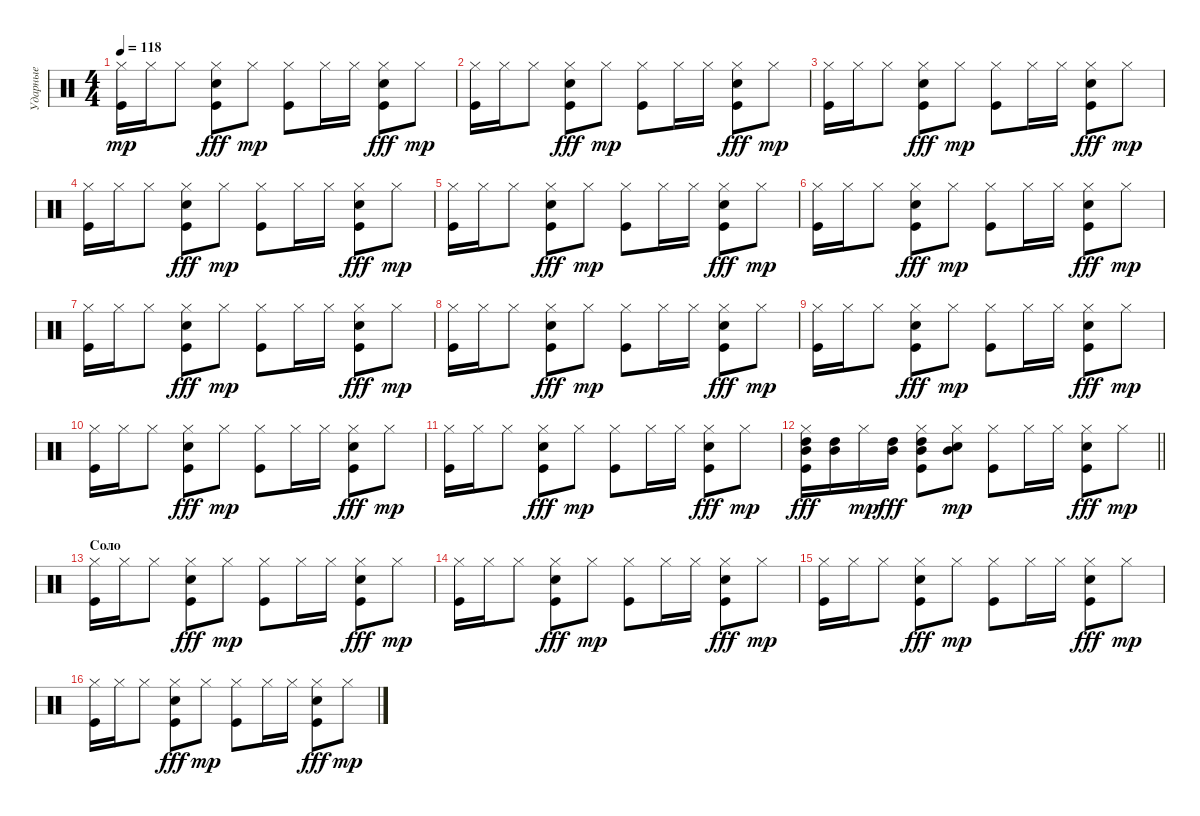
\track ("Ударные" "Ударные") {instrument percussion}
\staff {score}
\articulation defaults
\ts (4 4)
\tempo 118
\clef neutral
\ks c
("Kick (hit)" "Hi-Hat (closed)").16{dy mp} "Hi-Hat (closed)".16 "Hi-Hat (closed)".8 ("Kick (hit)" "Hi-Hat (closed)" "Electric Snare (hit)").8{dy fff} "Hi-Hat (closed)".8{dy mp} ("Kick (hit)" "Hi-Hat (closed)").8 "Hi-Hat (closed)".16 "Hi-Hat (closed)".16 ("Hi-Hat (closed)" "Kick (hit)" "Electric Snare (hit)").8{dy fff} "Hi-Hat (closed)".8{dy mp} |
("Kick (hit)" "Hi-Hat (closed)").16 "Hi-Hat (closed)".16 "Hi-Hat (closed)".8 ("Kick (hit)" "Hi-Hat (closed)" "Electric Snare (hit)").8{dy fff} "Hi-Hat (closed)".8{dy mp} ("Kick (hit)" "Hi-Hat (closed)").8 "Hi-Hat (closed)".16 "Hi-Hat (closed)".16 ("Hi-Hat (closed)" "Kick (hit)" "Electric Snare (hit)").8{dy fff} "Hi-Hat (closed)".8{dy mp} |
("Kick (hit)" "Hi-Hat (closed)").16 "Hi-Hat (closed)".16 "Hi-Hat (closed)".8 ("Kick (hit)" "Hi-Hat (closed)" "Electric Snare (hit)").8{dy fff} "Hi-Hat (closed)".8{dy mp} ("Kick (hit)" "Hi-Hat (closed)").8 "Hi-Hat (closed)".16 "Hi-Hat (closed)".16 ("Hi-Hat (closed)" "Kick (hit)" "Electric Snare (hit)").8{dy fff} "Hi-Hat (closed)".8{dy mp} |
("Kick (hit)" "Hi-Hat (closed)").16 "Hi-Hat (closed)".16 "Hi-Hat (closed)".8 ("Kick (hit)" "Hi-Hat (closed)" "Electric Snare (hit)").8{dy fff} "Hi-Hat (closed)".8{dy mp} ("Kick (hit)" "Hi-Hat (closed)").8 "Hi-Hat (closed)".16 "Hi-Hat (closed)".16 ("Hi-Hat (closed)" "Kick (hit)" "Electric Snare (hit)").8{dy fff} "Hi-Hat (closed)".8{dy mp} |
("Kick (hit)" "Hi-Hat (closed)").16 "Hi-Hat (closed)".16 "Hi-Hat (closed)".8 ("Kick (hit)" "Hi-Hat (closed)" "Electric Snare (hit)").8{dy fff} "Hi-Hat (closed)".8{dy mp} ("Kick (hit)" "Hi-Hat (closed)").8 "Hi-Hat (closed)".16 "Hi-Hat (closed)".16 ("Hi-Hat (closed)" "Kick (hit)" "Electric Snare (hit)").8{dy fff} "Hi-Hat (closed)".8{dy mp} |
("Kick (hit)" "Hi-Hat (closed)").16 "Hi-Hat (closed)".16 "Hi-Hat (closed)".8 ("Kick (hit)" "Hi-Hat (closed)" "Electric Snare (hit)").8{dy fff} "Hi-Hat (closed)".8{dy mp} ("Kick (hit)" "Hi-Hat (closed)").8 "Hi-Hat (closed)".16 "Hi-Hat (closed)".16 ("Hi-Hat (closed)" "Kick (hit)" "Electric Snare (hit)").8{dy fff} "Hi-Hat (closed)".8{dy mp} |
("Kick (hit)" "Hi-Hat (closed)").16 "Hi-Hat (closed)".16 "Hi-Hat (closed)".8 ("Kick (hit)" "Hi-Hat (closed)" "Electric Snare (hit)").8{dy fff} "Hi-Hat (closed)".8{dy mp} ("Kick (hit)" "Hi-Hat (closed)").8 "Hi-Hat (closed)".16 "Hi-Hat (closed)".16 ("Hi-Hat (closed)" "Kick (hit)" "Electric Snare (hit)").8{dy fff} "Hi-Hat (closed)".8{dy mp} |
("Kick (hit)" "Hi-Hat (closed)").16 "Hi-Hat (closed)".16 "Hi-Hat (closed)".8 ("Kick (hit)" "Hi-Hat (closed)" "Electric Snare (hit)").8{dy fff} "Hi-Hat (closed)".8{dy mp} ("Kick (hit)" "Hi-Hat (closed)").8 "Hi-Hat (closed)".16 "Hi-Hat (closed)".16 ("Hi-Hat (closed)" "Kick (hit)" "Electric Snare (hit)").8{dy fff} "Hi-Hat (closed)".8{dy mp} |
("Kick (hit)" "Hi-Hat (closed)").16 "Hi-Hat (closed)".16 "Hi-Hat (closed)".8 ("Kick (hit)" "Hi-Hat (closed)" "Electric Snare (hit)").8{dy fff} "Hi-Hat (closed)".8{dy mp} ("Kick (hit)" "Hi-Hat (closed)").8 "Hi-Hat (closed)".16 "Hi-Hat (closed)".16 ("Hi-Hat (closed)" "Kick (hit)" "Electric Snare (hit)").8{dy fff} "Hi-Hat (closed)".8{dy mp} |
("Kick (hit)" "Hi-Hat (closed)").16 "Hi-Hat (closed)".16 "Hi-Hat (closed)".8 ("Kick (hit)" "Hi-Hat (closed)" "Electric Snare (hit)").8{dy fff} "Hi-Hat (closed)".8{dy mp} ("Kick (hit)" "Hi-Hat (closed)").8 "Hi-Hat (closed)".16 "Hi-Hat (closed)".16 ("Hi-Hat (closed)" "Kick (hit)" "Electric Snare (hit)").8{dy fff} "Hi-Hat (closed)".8{dy mp} |
("Kick (hit)" "Hi-Hat (closed)").16 "Hi-Hat (closed)".16 "Hi-Hat (closed)".8 ("Kick (hit)" "Hi-Hat (closed)" "Electric Snare (hit)").8{dy fff} "Hi-Hat (closed)".8{dy mp} ("Kick (hit)" "Hi-Hat (closed)").8 "Hi-Hat (closed)".16 "Hi-Hat (closed)".16 ("Hi-Hat (closed)" "Kick (hit)" "Electric Snare (hit)").8{dy fff} "Hi-Hat (closed)".8{dy mp} |
\barLineRight lightlight
("Kick (hit)" "Hi-Hat (closed)" "High Tom (hit)" "Mid Tom (hit)").16{dy fff} ("High Tom (hit)" "Mid Tom (hit)").16 "Hi-Hat (closed)".16{dy mp} ("High Tom (hit)" "Mid Tom (hit)").16{dy fff} ("High Tom (hit)" "Mid Tom (hit)" "Hi-Hat (closed)" "Kick (hit)").8 ("Mid Tom (hit)" "Snare (hit) 2" "Hi-Hat (closed)").8{dy mp} ("Kick (hit)" "Hi-Hat (closed)").8 "Hi-Hat (closed)".16 "Hi-Hat (closed)".16 ("Hi-Hat (closed)" "Kick (hit)" "Electric Snare (hit)").8{dy fff} "Hi-Hat (closed)".8{dy mp} |
\section ("" "Соло")
("Kick (hit)" "Hi-Hat (closed)").16 "Hi-Hat (closed)".16 "Hi-Hat (closed)".8 ("Kick (hit)" "Hi-Hat (closed)" "Electric Snare (hit)").8{dy fff} "Hi-Hat (closed)".8{dy mp} ("Kick (hit)" "Hi-Hat (closed)").8 "Hi-Hat (closed)".16 "Hi-Hat (closed)".16 ("Hi-Hat (closed)" "Kick (hit)" "Electric Snare (hit)").8{dy fff} "Hi-Hat (closed)".8{dy mp} |
("Kick (hit)" "Hi-Hat (closed)").16 "Hi-Hat (closed)".16 "Hi-Hat (closed)".8 ("Kick (hit)" "Hi-Hat (closed)" "Electric Snare (hit)").8{dy fff} "Hi-Hat (closed)".8{dy mp} ("Kick (hit)" "Hi-Hat (closed)").8 "Hi-Hat (closed)".16 "Hi-Hat (closed)".16 ("Hi-Hat (closed)" "Kick (hit)" "Electric Snare (hit)").8{dy fff} "Hi-Hat (closed)".8{dy mp} |
("Kick (hit)" "Hi-Hat (closed)").16 "Hi-Hat (closed)".16 "Hi-Hat (closed)".8 ("Kick (hit)" "Hi-Hat (closed)" "Electric Snare (hit)").8{dy fff} "Hi-Hat (closed)".8{dy mp} ("Kick (hit)" "Hi-Hat (closed)").8 "Hi-Hat (closed)".16 "Hi-Hat (closed)".16 ("Hi-Hat (closed)" "Kick (hit)" "Electric Snare (hit)").8{dy fff} "Hi-Hat (closed)".8{dy mp} |
("Kick (hit)" "Hi-Hat (closed)").16 "Hi-Hat (closed)".16 "Hi-Hat (closed)".8 ("Kick (hit)" "Hi-Hat (closed)" "Electric Snare (hit)").8{dy fff} "Hi-Hat (closed)".8{dy mp} ("Kick (hit)" "Hi-Hat (closed)").8 "Hi-Hat (closed)".16 "Hi-Hat (closed)".16 ("Hi-Hat (closed)" "Kick (hit)" "Electric Snare (hit)").8{dy fff} "Hi-Hat (closed)".8{dy mp}
